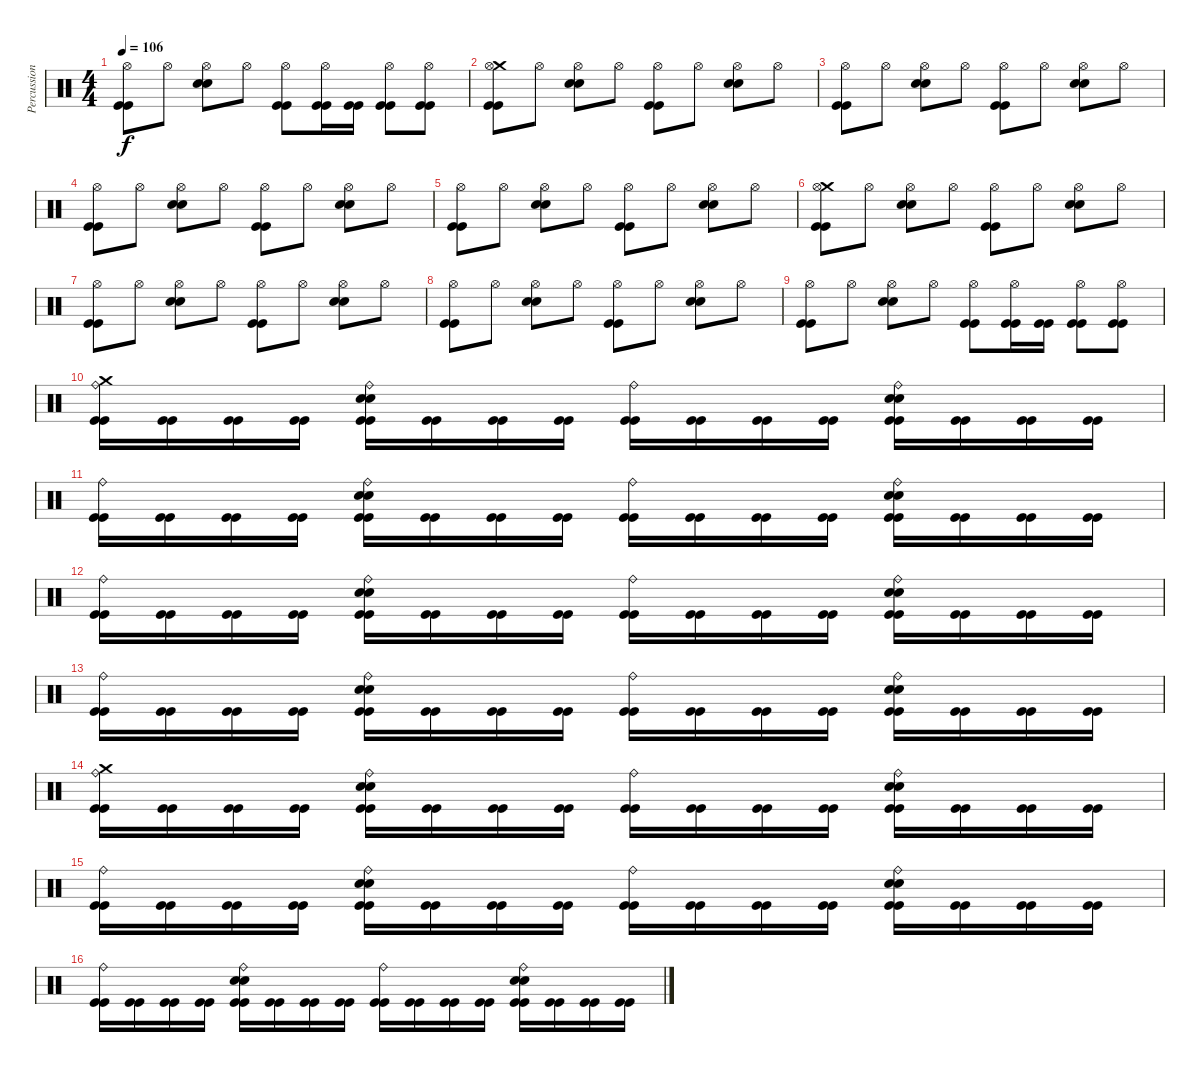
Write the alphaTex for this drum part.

\track ("Percussion" "Percussion") {instrument percussion}
\staff {score}
\articulation defaults
\ts (4 4)
\tempo 106
\clef neutral
\ks c
("Hi-Hat (open)" "Kick (hit)" "Kick (hit)").8{dy f} "Hi-Hat (open)".8 ("Hi-Hat (open)" "Snare (hit) 2" "Snare (hit) 2").8 "Hi-Hat (open)".8 ("Hi-Hat (open)" "Kick (hit)" "Kick (hit)").8 ("Hi-Hat (open)" "Kick (hit)" "Kick (hit)").16 ("Kick (hit)" "Kick (hit)").16 ("Hi-Hat (open)" "Kick (hit)" "Kick (hit)").8 ("Hi-Hat (open)" "Kick (hit)" "Kick (hit)").8 |
("Crash medium (hit)" "Hi-Hat (open)" "Kick (hit)" "Kick (hit)").8 "Hi-Hat (open)".8 ("Hi-Hat (open)" "Snare (hit) 2" "Snare (hit) 2").8 "Hi-Hat (open)".8 ("Hi-Hat (open)" "Kick (hit)" "Kick (hit)").8 "Hi-Hat (open)".8 ("Hi-Hat (open)" "Snare (hit) 2" "Snare (hit) 2").8 "Hi-Hat (open)".8 |
("Hi-Hat (open)" "Kick (hit)" "Kick (hit)").8 "Hi-Hat (open)".8 ("Hi-Hat (open)" "Snare (hit) 2" "Snare (hit) 2").8 "Hi-Hat (open)".8 ("Hi-Hat (open)" "Kick (hit)" "Kick (hit)").8 "Hi-Hat (open)".8 ("Hi-Hat (open)" "Snare (hit) 2" "Snare (hit) 2").8 "Hi-Hat (open)".8 |
("Hi-Hat (open)" "Kick (hit)" "Kick (hit)").8 "Hi-Hat (open)".8 ("Hi-Hat (open)" "Snare (hit) 2" "Snare (hit) 2").8 "Hi-Hat (open)".8 ("Hi-Hat (open)" "Kick (hit)" "Kick (hit)").8 "Hi-Hat (open)".8 ("Hi-Hat (open)" "Snare (hit) 2" "Snare (hit) 2").8 "Hi-Hat (open)".8 |
("Hi-Hat (open)" "Kick (hit)" "Kick (hit)").8 "Hi-Hat (open)".8 ("Hi-Hat (open)" "Snare (hit) 2" "Snare (hit) 2").8 "Hi-Hat (open)".8 ("Hi-Hat (open)" "Kick (hit)" "Kick (hit)").8 "Hi-Hat (open)".8 ("Hi-Hat (open)" "Snare (hit) 2" "Snare (hit) 2").8 "Hi-Hat (open)".8 |
("Crash medium (hit)" "Hi-Hat (open)" "Kick (hit)" "Kick (hit)").8 "Hi-Hat (open)".8 ("Hi-Hat (open)" "Snare (hit) 2" "Snare (hit) 2").8 "Hi-Hat (open)".8 ("Hi-Hat (open)" "Kick (hit)" "Kick (hit)").8 "Hi-Hat (open)".8 ("Hi-Hat (open)" "Snare (hit) 2" "Snare (hit) 2").8 "Hi-Hat (open)".8 |
("Hi-Hat (open)" "Kick (hit)" "Kick (hit)").8 "Hi-Hat (open)".8 ("Hi-Hat (open)" "Snare (hit) 2" "Snare (hit) 2").8 "Hi-Hat (open)".8 ("Hi-Hat (open)" "Kick (hit)" "Kick (hit)").8 "Hi-Hat (open)".8 ("Hi-Hat (open)" "Snare (hit) 2" "Snare (hit) 2").8 "Hi-Hat (open)".8 |
("Hi-Hat (open)" "Kick (hit)" "Kick (hit)").8 "Hi-Hat (open)".8 ("Hi-Hat (open)" "Snare (hit) 2" "Snare (hit) 2").8 "Hi-Hat (open)".8 ("Hi-Hat (open)" "Kick (hit)" "Kick (hit)").8 "Hi-Hat (open)".8 ("Hi-Hat (open)" "Snare (hit) 2" "Snare (hit) 2").8 "Hi-Hat (open)".8 |
("Hi-Hat (open)" "Kick (hit)" "Kick (hit)").8 "Hi-Hat (open)".8 ("Hi-Hat (open)" "Snare (hit) 2" "Snare (hit) 2").8 "Hi-Hat (open)".8 ("Hi-Hat (open)" "Kick (hit)" "Kick (hit)").8 ("Hi-Hat (open)" "Kick (hit)" "Kick (hit)").16 ("Kick (hit)" "Kick (hit)").16 ("Hi-Hat (open)" "Kick (hit)" "Kick (hit)").8 ("Hi-Hat (open)" "Kick (hit)" "Kick (hit)").8 |
("Ride (bell)" "Crash medium (hit)" "Kick (hit)" "Kick (hit)").16 ("Kick (hit)" "Kick (hit)").16 ("Kick (hit)" "Kick (hit)").16 ("Kick (hit)" "Kick (hit)").16 ("Ride (bell)" "Snare (hit) 2" "Snare (hit) 2" "Kick (hit)" "Kick (hit)").16 ("Kick (hit)" "Kick (hit)").16 ("Kick (hit)" "Kick (hit)").16 ("Kick (hit)" "Kick (hit)").16 ("Ride (bell)" "Kick (hit)" "Kick (hit)").16 ("Kick (hit)" "Kick (hit)").16 ("Kick (hit)" "Kick (hit)").16 ("Kick (hit)" "Kick (hit)").16 ("Ride (bell)" "Snare (hit) 2" "Snare (hit) 2" "Kick (hit)" "Kick (hit)").16 ("Kick (hit)" "Kick (hit)").16 ("Kick (hit)" "Kick (hit)").16 ("Kick (hit)" "Kick (hit)").16 |
("Ride (bell)" "Kick (hit)" "Kick (hit)").16 ("Kick (hit)" "Kick (hit)").16 ("Kick (hit)" "Kick (hit)").16 ("Kick (hit)" "Kick (hit)").16 ("Ride (bell)" "Snare (hit) 2" "Snare (hit) 2" "Kick (hit)" "Kick (hit)").16 ("Kick (hit)" "Kick (hit)").16 ("Kick (hit)" "Kick (hit)").16 ("Kick (hit)" "Kick (hit)").16 ("Ride (bell)" "Kick (hit)" "Kick (hit)").16 ("Kick (hit)" "Kick (hit)").16 ("Kick (hit)" "Kick (hit)").16 ("Kick (hit)" "Kick (hit)").16 ("Ride (bell)" "Snare (hit) 2" "Snare (hit) 2" "Kick (hit)" "Kick (hit)").16 ("Kick (hit)" "Kick (hit)").16 ("Kick (hit)" "Kick (hit)").16 ("Kick (hit)" "Kick (hit)").16 |
("Ride (bell)" "Kick (hit)" "Kick (hit)").16 ("Kick (hit)" "Kick (hit)").16 ("Kick (hit)" "Kick (hit)").16 ("Kick (hit)" "Kick (hit)").16 ("Ride (bell)" "Snare (hit) 2" "Snare (hit) 2" "Kick (hit)" "Kick (hit)").16 ("Kick (hit)" "Kick (hit)").16 ("Kick (hit)" "Kick (hit)").16 ("Kick (hit)" "Kick (hit)").16 ("Ride (bell)" "Kick (hit)" "Kick (hit)").16 ("Kick (hit)" "Kick (hit)").16 ("Kick (hit)" "Kick (hit)").16 ("Kick (hit)" "Kick (hit)").16 ("Ride (bell)" "Snare (hit) 2" "Snare (hit) 2" "Kick (hit)" "Kick (hit)").16 ("Kick (hit)" "Kick (hit)").16 ("Kick (hit)" "Kick (hit)").16 ("Kick (hit)" "Kick (hit)").16 |
("Ride (bell)" "Kick (hit)" "Kick (hit)").16 ("Kick (hit)" "Kick (hit)").16 ("Kick (hit)" "Kick (hit)").16 ("Kick (hit)" "Kick (hit)").16 ("Ride (bell)" "Snare (hit) 2" "Snare (hit) 2" "Kick (hit)" "Kick (hit)").16 ("Kick (hit)" "Kick (hit)").16 ("Kick (hit)" "Kick (hit)").16 ("Kick (hit)" "Kick (hit)").16 ("Ride (bell)" "Kick (hit)" "Kick (hit)").16 ("Kick (hit)" "Kick (hit)").16 ("Kick (hit)" "Kick (hit)").16 ("Kick (hit)" "Kick (hit)").16 ("Ride (bell)" "Snare (hit) 2" "Snare (hit) 2" "Kick (hit)" "Kick (hit)").16 ("Kick (hit)" "Kick (hit)").16 ("Kick (hit)" "Kick (hit)").16 ("Kick (hit)" "Kick (hit)").16 |
("Ride (bell)" "Crash medium (hit)" "Kick (hit)" "Kick (hit)").16 ("Kick (hit)" "Kick (hit)").16 ("Kick (hit)" "Kick (hit)").16 ("Kick (hit)" "Kick (hit)").16 ("Ride (bell)" "Snare (hit) 2" "Snare (hit) 2" "Kick (hit)" "Kick (hit)").16 ("Kick (hit)" "Kick (hit)").16 ("Kick (hit)" "Kick (hit)").16 ("Kick (hit)" "Kick (hit)").16 ("Ride (bell)" "Kick (hit)" "Kick (hit)").16 ("Kick (hit)" "Kick (hit)").16 ("Kick (hit)" "Kick (hit)").16 ("Kick (hit)" "Kick (hit)").16 ("Ride (bell)" "Snare (hit) 2" "Snare (hit) 2" "Kick (hit)" "Kick (hit)").16 ("Kick (hit)" "Kick (hit)").16 ("Kick (hit)" "Kick (hit)").16 ("Kick (hit)" "Kick (hit)").16 |
("Ride (bell)" "Kick (hit)" "Kick (hit)").16 ("Kick (hit)" "Kick (hit)").16 ("Kick (hit)" "Kick (hit)").16 ("Kick (hit)" "Kick (hit)").16 ("Ride (bell)" "Snare (hit) 2" "Snare (hit) 2" "Kick (hit)" "Kick (hit)").16 ("Kick (hit)" "Kick (hit)").16 ("Kick (hit)" "Kick (hit)").16 ("Kick (hit)" "Kick (hit)").16 ("Ride (bell)" "Kick (hit)" "Kick (hit)").16 ("Kick (hit)" "Kick (hit)").16 ("Kick (hit)" "Kick (hit)").16 ("Kick (hit)" "Kick (hit)").16 ("Ride (bell)" "Snare (hit) 2" "Snare (hit) 2" "Kick (hit)" "Kick (hit)").16 ("Kick (hit)" "Kick (hit)").16 ("Kick (hit)" "Kick (hit)").16 ("Kick (hit)" "Kick (hit)").16 |
("Ride (bell)" "Kick (hit)" "Kick (hit)").16 ("Kick (hit)" "Kick (hit)").16 ("Kick (hit)" "Kick (hit)").16 ("Kick (hit)" "Kick (hit)").16 ("Ride (bell)" "Snare (hit) 2" "Snare (hit) 2" "Kick (hit)" "Kick (hit)").16 ("Kick (hit)" "Kick (hit)").16 ("Kick (hit)" "Kick (hit)").16 ("Kick (hit)" "Kick (hit)").16 ("Ride (bell)" "Kick (hit)" "Kick (hit)").16 ("Kick (hit)" "Kick (hit)").16 ("Kick (hit)" "Kick (hit)").16 ("Kick (hit)" "Kick (hit)").16 ("Ride (bell)" "Snare (hit) 2" "Snare (hit) 2" "Kick (hit)" "Kick (hit)").16 ("Kick (hit)" "Kick (hit)").16 ("Kick (hit)" "Kick (hit)").16 ("Kick (hit)" "Kick (hit)").16
